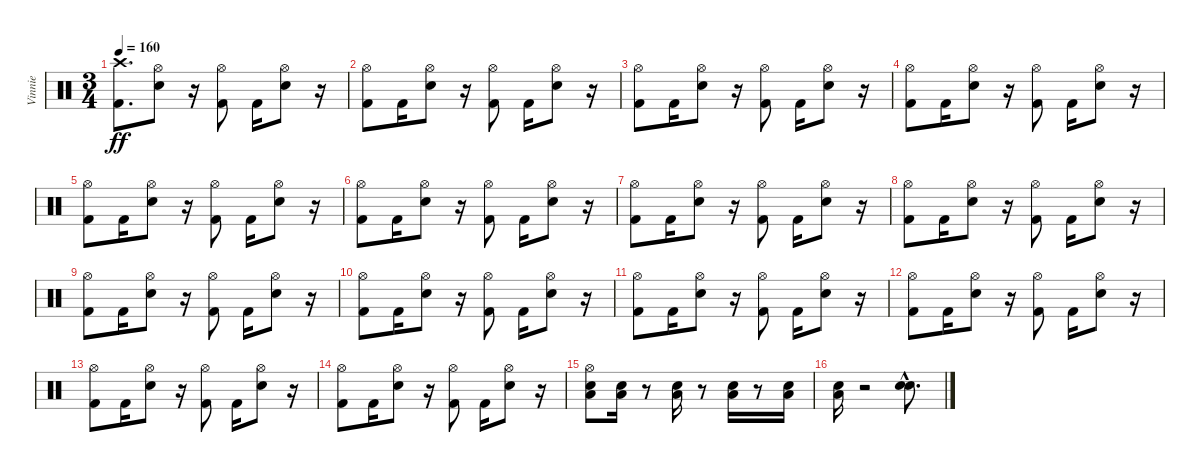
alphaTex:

\track ("Vinnie" "Vinnie") {instrument percussion}
\staff {score}
\articulation defaults
\ts (3 4)
\tempo 160
\clef neutral
\ks c
("Kick (hit) 2" "Crash high (hit)").8{d dy ff} ("Electric Snare (hit)" "Hi-Hat (open)").8 r.16 ("Kick (hit) 2" "Hi-Hat (open)").8 "Kick (hit) 2".16 ("Electric Snare (hit)" "Hi-Hat (open)").8 r.16 |
("Kick (hit) 2" "Hi-Hat (open)").8 "Kick (hit) 2".16 ("Electric Snare (hit)" "Hi-Hat (open)").8 r.16 ("Kick (hit) 2" "Hi-Hat (open)").8 "Kick (hit) 2".16 ("Electric Snare (hit)" "Hi-Hat (open)").8 r.16 |
("Kick (hit) 2" "Hi-Hat (open)").8 "Kick (hit) 2".16 ("Electric Snare (hit)" "Hi-Hat (open)").8 r.16 ("Kick (hit) 2" "Hi-Hat (open)").8 "Kick (hit) 2".16 ("Electric Snare (hit)" "Hi-Hat (open)").8 r.16 |
("Kick (hit) 2" "Hi-Hat (open)").8 "Kick (hit) 2".16 ("Electric Snare (hit)" "Hi-Hat (open)").8 r.16 ("Kick (hit) 2" "Hi-Hat (open)").8 "Kick (hit) 2".16 ("Electric Snare (hit)" "Hi-Hat (open)").8 r.16 |
("Kick (hit) 2" "Hi-Hat (open)").8 "Kick (hit) 2".16 ("Electric Snare (hit)" "Hi-Hat (open)").8 r.16 ("Kick (hit) 2" "Hi-Hat (open)").8 "Kick (hit) 2".16 ("Electric Snare (hit)" "Hi-Hat (open)").8 r.16 |
("Kick (hit) 2" "Hi-Hat (open)").8 "Kick (hit) 2".16 ("Electric Snare (hit)" "Hi-Hat (open)").8 r.16 ("Kick (hit) 2" "Hi-Hat (open)").8 "Kick (hit) 2".16 ("Electric Snare (hit)" "Hi-Hat (open)").8 r.16 |
("Kick (hit) 2" "Hi-Hat (open)").8 "Kick (hit) 2".16 ("Electric Snare (hit)" "Hi-Hat (open)").8 r.16 ("Kick (hit) 2" "Hi-Hat (open)").8 "Kick (hit) 2".16 ("Electric Snare (hit)" "Hi-Hat (open)").8 r.16 |
("Kick (hit) 2" "Hi-Hat (open)").8 "Kick (hit) 2".16 ("Electric Snare (hit)" "Hi-Hat (open)").8 r.16 ("Kick (hit) 2" "Hi-Hat (open)").8 "Kick (hit) 2".16 ("Electric Snare (hit)" "Hi-Hat (open)").8 r.16 |
("Kick (hit) 2" "Hi-Hat (open)").8 "Kick (hit) 2".16 ("Electric Snare (hit)" "Hi-Hat (open)").8 r.16 ("Kick (hit) 2" "Hi-Hat (open)").8 "Kick (hit) 2".16 ("Electric Snare (hit)" "Hi-Hat (open)").8 r.16 |
("Kick (hit) 2" "Hi-Hat (open)").8 "Kick (hit) 2".16 ("Electric Snare (hit)" "Hi-Hat (open)").8 r.16 ("Kick (hit) 2" "Hi-Hat (open)").8 "Kick (hit) 2".16 ("Electric Snare (hit)" "Hi-Hat (open)").8 r.16 |
("Kick (hit) 2" "Hi-Hat (open)").8 "Kick (hit) 2".16 ("Electric Snare (hit)" "Hi-Hat (open)").8 r.16 ("Kick (hit) 2" "Hi-Hat (open)").8 "Kick (hit) 2".16 ("Electric Snare (hit)" "Hi-Hat (open)").8 r.16 |
("Kick (hit) 2" "Hi-Hat (open)").8 "Kick (hit) 2".16 ("Electric Snare (hit)" "Hi-Hat (open)").8 r.16 ("Kick (hit) 2" "Hi-Hat (open)").8 "Kick (hit) 2".16 ("Electric Snare (hit)" "Hi-Hat (open)").8 r.16 |
("Kick (hit) 2" "Hi-Hat (open)").8 "Kick (hit) 2".16 ("Electric Snare (hit)" "Hi-Hat (open)").8 r.16 ("Kick (hit) 2" "Hi-Hat (open)").8 "Kick (hit) 2".16 ("Electric Snare (hit)" "Hi-Hat (open)").8 r.16 |
("Kick (hit) 2" "Hi-Hat (open)").8 "Kick (hit) 2".16 ("Electric Snare (hit)" "Hi-Hat (open)").8 r.16 ("Kick (hit) 2" "Hi-Hat (open)").8 "Kick (hit) 2".16 ("Electric Snare (hit)" "Hi-Hat (open)").8 r.16 |
("Low Tom (hit)" "Hi-Hat (open)" "Electric Snare (hit)").8 ("Low Tom (hit)" "Electric Snare (hit)").16 r.8 ("Low Tom (hit)" "Electric Snare (hit)").16 r.8 ("Low Tom (hit)" "Electric Snare (hit)").16 r.8 ("Low Tom (hit)" "Electric Snare (hit)").16 |
("Low Tom (hit)" "Electric Snare (hit)").16 r.2 ("Electric Snare (hit)"{hac} "Electric Snare (hit)").8{d}
